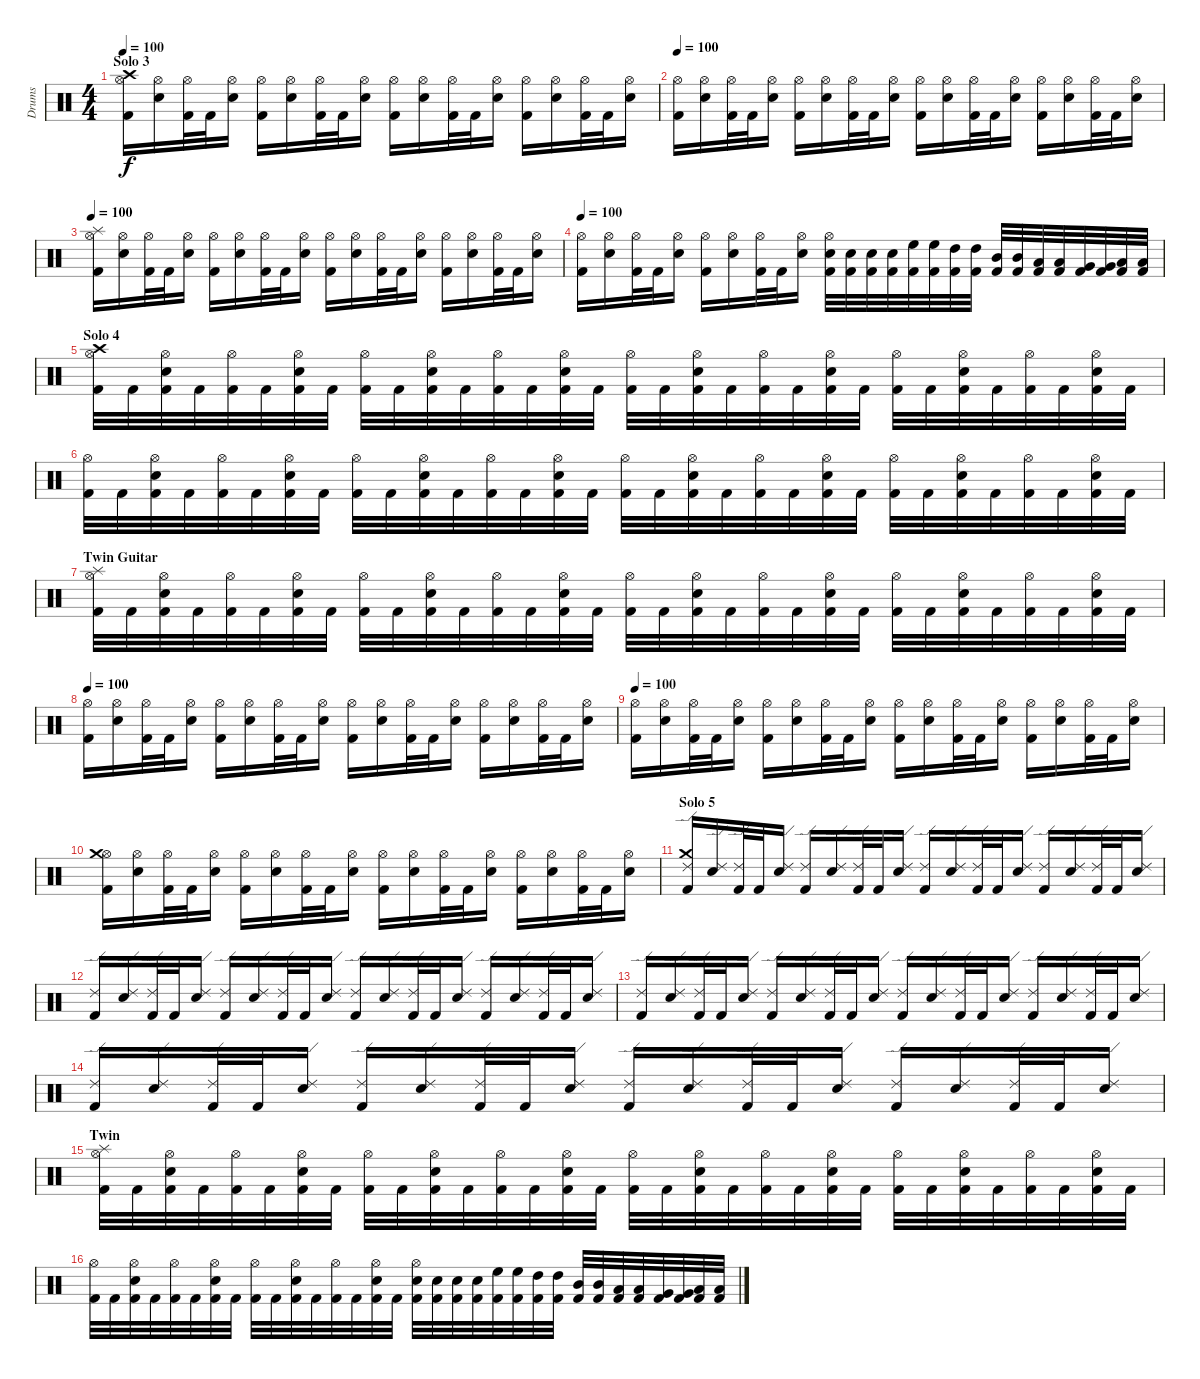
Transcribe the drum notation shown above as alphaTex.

\track ("Drums" "Drums") {instrument percussion}
\staff {score}
\articulation defaults
\ts (4 4)
\section ("" "Solo 3")
\tempo 100
\clef neutral
\ks c
("Kick (hit) 2" "Hi-Hat (open)" "Crash high (hit)").16{dy f} ("Snare (hit) 2" "Hi-Hat (open)").16 ("Kick (hit) 2" "Hi-Hat (open)").32 "Kick (hit) 2".32 ("Snare (hit) 2" "Hi-Hat (open)").16 ("Kick (hit) 2" "Hi-Hat (open)").16 ("Snare (hit) 2" "Hi-Hat (open)").16 ("Kick (hit) 2" "Hi-Hat (open)").32 "Kick (hit) 2".32 ("Snare (hit) 2" "Hi-Hat (open)").16 ("Kick (hit) 2" "Hi-Hat (open)").16 ("Snare (hit) 2" "Hi-Hat (open)").16 ("Kick (hit) 2" "Hi-Hat (open)").32 "Kick (hit) 2".32 ("Snare (hit) 2" "Hi-Hat (open)").16 ("Kick (hit) 2" "Hi-Hat (open)").16 ("Snare (hit) 2" "Hi-Hat (open)").16 ("Kick (hit) 2" "Hi-Hat (open)").32 "Kick (hit) 2".32 ("Snare (hit) 2" "Hi-Hat (open)").16 |
\tempo 100
("Kick (hit) 2" "Hi-Hat (open)").16 ("Snare (hit) 2" "Hi-Hat (open)").16 ("Kick (hit) 2" "Hi-Hat (open)").32 "Kick (hit) 2".32 ("Snare (hit) 2" "Hi-Hat (open)").16 ("Kick (hit) 2" "Hi-Hat (open)").16 ("Snare (hit) 2" "Hi-Hat (open)").16 ("Kick (hit) 2" "Hi-Hat (open)").32 "Kick (hit) 2".32 ("Snare (hit) 2" "Hi-Hat (open)").16 ("Kick (hit) 2" "Hi-Hat (open)").16 ("Snare (hit) 2" "Hi-Hat (open)").16 ("Kick (hit) 2" "Hi-Hat (open)").32 "Kick (hit) 2".32 ("Snare (hit) 2" "Hi-Hat (open)").16 ("Kick (hit) 2" "Hi-Hat (open)").16 ("Snare (hit) 2" "Hi-Hat (open)").16 ("Kick (hit) 2" "Hi-Hat (open)").32 "Kick (hit) 2".32 ("Snare (hit) 2" "Hi-Hat (open)").16 |
\tempo 100
("Kick (hit) 2" "Hi-Hat (open)" "Splash (hit)").16 ("Snare (hit) 2" "Hi-Hat (open)").16 ("Kick (hit) 2" "Hi-Hat (open)").32 "Kick (hit) 2".32 ("Snare (hit) 2" "Hi-Hat (open)").16 ("Kick (hit) 2" "Hi-Hat (open)").16 ("Snare (hit) 2" "Hi-Hat (open)").16 ("Kick (hit) 2" "Hi-Hat (open)").32 "Kick (hit) 2".32 ("Snare (hit) 2" "Hi-Hat (open)").16 ("Kick (hit) 2" "Hi-Hat (open)").16 ("Snare (hit) 2" "Hi-Hat (open)").16 ("Kick (hit) 2" "Hi-Hat (open)").32 "Kick (hit) 2".32 ("Snare (hit) 2" "Hi-Hat (open)").16 ("Kick (hit) 2" "Hi-Hat (open)").16 ("Snare (hit) 2" "Hi-Hat (open)").16 ("Kick (hit) 2" "Hi-Hat (open)").32 "Kick (hit) 2".32 ("Snare (hit) 2" "Hi-Hat (open)").16 |
\tempo 100
("Kick (hit) 2" "Hi-Hat (open)").16 ("Snare (hit) 2" "Hi-Hat (open)").16 ("Kick (hit) 2" "Hi-Hat (open)").32 "Kick (hit) 2".32 ("Snare (hit) 2" "Hi-Hat (open)").16 ("Kick (hit) 2" "Hi-Hat (open)").16 ("Snare (hit) 2" "Hi-Hat (open)").16 ("Kick (hit) 2" "Hi-Hat (open)").32 "Kick (hit) 2".32 ("Snare (hit) 2" "Hi-Hat (open)").16 ("Kick (hit) 2" "Snare (hit) 2" "Hi-Hat (open)").32 ("Kick (hit) 2" "Snare (hit) 2").32 ("Kick (hit) 2" "Snare (hit) 2").32 ("Kick (hit) 2" "Snare (hit) 2").32 ("Kick (hit) 2" "High Floor Tom (hit)").32 ("Kick (hit) 2" "High Floor Tom (hit)").32 ("Kick (hit) 2" "High Tom (hit)").32 ("Kick (hit) 2" "High Tom (hit)").32 ("Kick (hit) 2" "Mid Tom (hit)").32 ("Kick (hit) 2" "Mid Tom (hit)").32 ("Kick (hit) 2" "Low Tom (hit)").32 ("Kick (hit) 2" "Low Tom (hit)").32 ("Kick (hit) 2" "Very Low Tom (hit)").32 ("Kick (hit) 2" "Very Low Tom (hit)").32 ("Kick (hit) 2" "Low Floor Tom (hit)").32 ("Kick (hit) 2" "Low Floor Tom (hit)").32 |
\section ("" "Solo 4")
("Kick (hit) 2" "Hi-Hat (open)" "Crash high (hit)").32 "Kick (hit) 2".32 ("Kick (hit) 2" "Snare (hit) 2" "Hi-Hat (open)").32 "Kick (hit) 2".32 ("Kick (hit) 2" "Hi-Hat (open)").32 "Kick (hit) 2".32 ("Kick (hit) 2" "Snare (hit) 2" "Hi-Hat (open)").32 "Kick (hit) 2".32 ("Kick (hit) 2" "Hi-Hat (open)").32 "Kick (hit) 2".32 ("Kick (hit) 2" "Snare (hit) 2" "Hi-Hat (open)").32 "Kick (hit) 2".32 ("Kick (hit) 2" "Hi-Hat (open)").32 "Kick (hit) 2".32 ("Kick (hit) 2" "Snare (hit) 2" "Hi-Hat (open)").32 "Kick (hit) 2".32 ("Kick (hit) 2" "Hi-Hat (open)").32 "Kick (hit) 2".32 ("Kick (hit) 2" "Snare (hit) 2" "Hi-Hat (open)").32 "Kick (hit) 2".32 ("Kick (hit) 2" "Hi-Hat (open)").32 "Kick (hit) 2".32 ("Kick (hit) 2" "Snare (hit) 2" "Hi-Hat (open)").32 "Kick (hit) 2".32 ("Kick (hit) 2" "Hi-Hat (open)").32 "Kick (hit) 2".32 ("Kick (hit) 2" "Snare (hit) 2" "Hi-Hat (open)").32 "Kick (hit) 2".32 ("Kick (hit) 2" "Hi-Hat (open)").32 "Kick (hit) 2".32 ("Kick (hit) 2" "Snare (hit) 2" "Hi-Hat (open)").32 "Kick (hit) 2".32 |
("Kick (hit) 2" "Hi-Hat (open)").32 "Kick (hit) 2".32 ("Kick (hit) 2" "Snare (hit) 2" "Hi-Hat (open)").32 "Kick (hit) 2".32 ("Kick (hit) 2" "Hi-Hat (open)").32 "Kick (hit) 2".32 ("Kick (hit) 2" "Snare (hit) 2" "Hi-Hat (open)").32 "Kick (hit) 2".32 ("Kick (hit) 2" "Hi-Hat (open)").32 "Kick (hit) 2".32 ("Kick (hit) 2" "Snare (hit) 2" "Hi-Hat (open)").32 "Kick (hit) 2".32 ("Kick (hit) 2" "Hi-Hat (open)").32 "Kick (hit) 2".32 ("Kick (hit) 2" "Snare (hit) 2" "Hi-Hat (open)").32 "Kick (hit) 2".32 ("Kick (hit) 2" "Hi-Hat (open)").32 "Kick (hit) 2".32 ("Kick (hit) 2" "Snare (hit) 2" "Hi-Hat (open)").32 "Kick (hit) 2".32 ("Kick (hit) 2" "Hi-Hat (open)").32 "Kick (hit) 2".32 ("Kick (hit) 2" "Snare (hit) 2" "Hi-Hat (open)").32 "Kick (hit) 2".32 ("Kick (hit) 2" "Hi-Hat (open)").32 "Kick (hit) 2".32 ("Kick (hit) 2" "Snare (hit) 2" "Hi-Hat (open)").32 "Kick (hit) 2".32 ("Kick (hit) 2" "Hi-Hat (open)").32 "Kick (hit) 2".32 ("Kick (hit) 2" "Snare (hit) 2" "Hi-Hat (open)").32 "Kick (hit) 2".32 |
\section ("" "Twin Guitar")
("Kick (hit) 2" "Hi-Hat (open)" "Splash (hit)").32 "Kick (hit) 2".32 ("Kick (hit) 2" "Snare (hit) 2" "Hi-Hat (open)").32 "Kick (hit) 2".32 ("Kick (hit) 2" "Hi-Hat (open)").32 "Kick (hit) 2".32 ("Kick (hit) 2" "Snare (hit) 2" "Hi-Hat (open)").32 "Kick (hit) 2".32 ("Kick (hit) 2" "Hi-Hat (open)").32 "Kick (hit) 2".32 ("Kick (hit) 2" "Snare (hit) 2" "Hi-Hat (open)").32 "Kick (hit) 2".32 ("Kick (hit) 2" "Hi-Hat (open)").32 "Kick (hit) 2".32 ("Kick (hit) 2" "Snare (hit) 2" "Hi-Hat (open)").32 "Kick (hit) 2".32 ("Kick (hit) 2" "Hi-Hat (open)").32 "Kick (hit) 2".32 ("Kick (hit) 2" "Snare (hit) 2" "Hi-Hat (open)").32 "Kick (hit) 2".32 ("Kick (hit) 2" "Hi-Hat (open)").32 "Kick (hit) 2".32 ("Kick (hit) 2" "Snare (hit) 2" "Hi-Hat (open)").32 "Kick (hit) 2".32 ("Kick (hit) 2" "Hi-Hat (open)").32 "Kick (hit) 2".32 ("Kick (hit) 2" "Snare (hit) 2" "Hi-Hat (open)").32 "Kick (hit) 2".32 ("Kick (hit) 2" "Hi-Hat (open)").32 "Kick (hit) 2".32 ("Kick (hit) 2" "Snare (hit) 2" "Hi-Hat (open)").32 "Kick (hit) 2".32 |
\tempo 100
("Kick (hit) 2" "Hi-Hat (open)").16 ("Snare (hit) 2" "Hi-Hat (open)").16 ("Kick (hit) 2" "Hi-Hat (open)").32 "Kick (hit) 2".32 ("Snare (hit) 2" "Hi-Hat (open)").16 ("Kick (hit) 2" "Hi-Hat (open)").16 ("Snare (hit) 2" "Hi-Hat (open)").16 ("Kick (hit) 2" "Hi-Hat (open)").32 "Kick (hit) 2".32 ("Snare (hit) 2" "Hi-Hat (open)").16 ("Kick (hit) 2" "Hi-Hat (open)").16 ("Snare (hit) 2" "Hi-Hat (open)").16 ("Kick (hit) 2" "Hi-Hat (open)").32 "Kick (hit) 2".32 ("Snare (hit) 2" "Hi-Hat (open)").16 ("Kick (hit) 2" "Hi-Hat (open)").16 ("Snare (hit) 2" "Hi-Hat (open)").16 ("Kick (hit) 2" "Hi-Hat (open)").32 "Kick (hit) 2".32 ("Snare (hit) 2" "Hi-Hat (open)").16 |
\tempo 100
("Kick (hit) 2" "Hi-Hat (open)").16 ("Snare (hit) 2" "Hi-Hat (open)").16 ("Kick (hit) 2" "Hi-Hat (open)").32 "Kick (hit) 2".32 ("Snare (hit) 2" "Hi-Hat (open)").16 ("Kick (hit) 2" "Hi-Hat (open)").16 ("Snare (hit) 2" "Hi-Hat (open)").16 ("Kick (hit) 2" "Hi-Hat (open)").32 "Kick (hit) 2".32 ("Snare (hit) 2" "Hi-Hat (open)").16 ("Kick (hit) 2" "Hi-Hat (open)").16 ("Snare (hit) 2" "Hi-Hat (open)").16 ("Kick (hit) 2" "Hi-Hat (open)").32 "Kick (hit) 2".32 ("Snare (hit) 2" "Hi-Hat (open)").16 ("Kick (hit) 2" "Hi-Hat (open)").16 ("Snare (hit) 2" "Hi-Hat (open)").16 ("Kick (hit) 2" "Hi-Hat (open)").32 "Kick (hit) 2".32 ("Snare (hit) 2" "Hi-Hat (open)").16 |
("Kick (hit) 2" "Hi-Hat (open)" "Crash medium (hit)").16 ("Snare (hit) 2" "Hi-Hat (open)").16 ("Kick (hit) 2" "Hi-Hat (open)").32 "Kick (hit) 2".32 ("Snare (hit) 2" "Hi-Hat (open)").16 ("Kick (hit) 2" "Hi-Hat (open)").16 ("Snare (hit) 2" "Hi-Hat (open)").16 ("Kick (hit) 2" "Hi-Hat (open)").32 "Kick (hit) 2".32 ("Snare (hit) 2" "Hi-Hat (open)").16 ("Kick (hit) 2" "Hi-Hat (open)").16 ("Snare (hit) 2" "Hi-Hat (open)").16 ("Kick (hit) 2" "Hi-Hat (open)").32 "Kick (hit) 2".32 ("Snare (hit) 2" "Hi-Hat (open)").16 ("Kick (hit) 2" "Hi-Hat (open)").16 ("Snare (hit) 2" "Hi-Hat (open)").16 ("Kick (hit) 2" "Hi-Hat (open)").32 "Kick (hit) 2".32 ("Snare (hit) 2" "Hi-Hat (open)").16 |
\section ("" "Solo 5")
("Kick (hit) 2" "Ride (edge) 2" "Crash medium (hit)").16 ("Snare (hit) 2" "Ride (edge) 2").16 ("Kick (hit) 2" "Ride (edge) 2").32 "Kick (hit) 2".32 ("Snare (hit) 2" "Ride (edge) 2").16 ("Kick (hit) 2" "Ride (edge) 2").16 ("Snare (hit) 2" "Ride (edge) 2").16 ("Kick (hit) 2" "Ride (edge) 2").32 "Kick (hit) 2".32 ("Snare (hit) 2" "Ride (edge) 2").16 ("Kick (hit) 2" "Ride (edge) 2").16 ("Snare (hit) 2" "Ride (edge) 2").16 ("Kick (hit) 2" "Ride (edge) 2").32 "Kick (hit) 2".32 ("Snare (hit) 2" "Ride (edge) 2").16 ("Kick (hit) 2" "Ride (edge) 2").16 ("Snare (hit) 2" "Ride (edge) 2").16 ("Kick (hit) 2" "Ride (edge) 2").32 "Kick (hit) 2".32 ("Snare (hit) 2" "Ride (edge) 2").16 |
("Kick (hit) 2" "Ride (edge) 2").16 ("Snare (hit) 2" "Ride (edge) 2").16 ("Kick (hit) 2" "Ride (edge) 2").32 "Kick (hit) 2".32 ("Snare (hit) 2" "Ride (edge) 2").16 ("Kick (hit) 2" "Ride (edge) 2").16 ("Snare (hit) 2" "Ride (edge) 2").16 ("Kick (hit) 2" "Ride (edge) 2").32 "Kick (hit) 2".32 ("Snare (hit) 2" "Ride (edge) 2").16 ("Kick (hit) 2" "Ride (edge) 2").16 ("Snare (hit) 2" "Ride (edge) 2").16 ("Kick (hit) 2" "Ride (edge) 2").32 "Kick (hit) 2".32 ("Snare (hit) 2" "Ride (edge) 2").16 ("Kick (hit) 2" "Ride (edge) 2").16 ("Snare (hit) 2" "Ride (edge) 2").16 ("Kick (hit) 2" "Ride (edge) 2").32 "Kick (hit) 2".32 ("Snare (hit) 2" "Ride (edge) 2").16 |
("Kick (hit) 2" "Ride (edge) 2").16 ("Snare (hit) 2" "Ride (edge) 2").16 ("Kick (hit) 2" "Ride (edge) 2").32 "Kick (hit) 2".32 ("Snare (hit) 2" "Ride (edge) 2").16 ("Kick (hit) 2" "Ride (edge) 2").16 ("Snare (hit) 2" "Ride (edge) 2").16 ("Kick (hit) 2" "Ride (edge) 2").32 "Kick (hit) 2".32 ("Snare (hit) 2" "Ride (edge) 2").16 ("Kick (hit) 2" "Ride (edge) 2").16 ("Snare (hit) 2" "Ride (edge) 2").16 ("Kick (hit) 2" "Ride (edge) 2").32 "Kick (hit) 2".32 ("Snare (hit) 2" "Ride (edge) 2").16 ("Kick (hit) 2" "Ride (edge) 2").16 ("Snare (hit) 2" "Ride (edge) 2").16 ("Kick (hit) 2" "Ride (edge) 2").32 "Kick (hit) 2".32 ("Snare (hit) 2" "Ride (edge) 2").16 |
("Kick (hit) 2" "Ride (edge) 2").16 ("Snare (hit) 2" "Ride (edge) 2").16 ("Kick (hit) 2" "Ride (edge) 2").32 "Kick (hit) 2".32 ("Snare (hit) 2" "Ride (edge) 2").16 ("Kick (hit) 2" "Ride (edge) 2").16 ("Snare (hit) 2" "Ride (edge) 2").16 ("Kick (hit) 2" "Ride (edge) 2").32 "Kick (hit) 2".32 ("Snare (hit) 2" "Ride (edge) 2").16 ("Kick (hit) 2" "Ride (edge) 2").16 ("Snare (hit) 2" "Ride (edge) 2").16 ("Kick (hit) 2" "Ride (edge) 2").32 "Kick (hit) 2".32 ("Snare (hit) 2" "Ride (edge) 2").16 ("Kick (hit) 2" "Ride (edge) 2").16 ("Snare (hit) 2" "Ride (edge) 2").16 ("Kick (hit) 2" "Ride (edge) 2").32 "Kick (hit) 2".32 ("Snare (hit) 2" "Ride (edge) 2").16 |
\section ("" "Twin")
("Kick (hit) 2" "Hi-Hat (open)" "Splash (hit)").32 "Kick (hit) 2".32 ("Kick (hit) 2" "Snare (hit) 2" "Hi-Hat (open)").32 "Kick (hit) 2".32 ("Kick (hit) 2" "Hi-Hat (open)").32 "Kick (hit) 2".32 ("Kick (hit) 2" "Snare (hit) 2" "Hi-Hat (open)").32 "Kick (hit) 2".32 ("Kick (hit) 2" "Hi-Hat (open)").32 "Kick (hit) 2".32 ("Kick (hit) 2" "Snare (hit) 2" "Hi-Hat (open)").32 "Kick (hit) 2".32 ("Kick (hit) 2" "Hi-Hat (open)").32 "Kick (hit) 2".32 ("Kick (hit) 2" "Snare (hit) 2" "Hi-Hat (open)").32 "Kick (hit) 2".32 ("Kick (hit) 2" "Hi-Hat (open)").32 "Kick (hit) 2".32 ("Kick (hit) 2" "Snare (hit) 2" "Hi-Hat (open)").32 "Kick (hit) 2".32 ("Kick (hit) 2" "Hi-Hat (open)").32 "Kick (hit) 2".32 ("Kick (hit) 2" "Snare (hit) 2" "Hi-Hat (open)").32 "Kick (hit) 2".32 ("Kick (hit) 2" "Hi-Hat (open)").32 "Kick (hit) 2".32 ("Kick (hit) 2" "Snare (hit) 2" "Hi-Hat (open)").32 "Kick (hit) 2".32 ("Kick (hit) 2" "Hi-Hat (open)").32 "Kick (hit) 2".32 ("Kick (hit) 2" "Snare (hit) 2" "Hi-Hat (open)").32 "Kick (hit) 2".32 |
("Kick (hit) 2" "Hi-Hat (open)").32 "Kick (hit) 2".32 ("Kick (hit) 2" "Snare (hit) 2" "Hi-Hat (open)").32 "Kick (hit) 2".32 ("Kick (hit) 2" "Hi-Hat (open)").32 "Kick (hit) 2".32 ("Kick (hit) 2" "Snare (hit) 2" "Hi-Hat (open)").32 "Kick (hit) 2".32 ("Kick (hit) 2" "Hi-Hat (open)").32 "Kick (hit) 2".32 ("Kick (hit) 2" "Snare (hit) 2" "Hi-Hat (open)").32 "Kick (hit) 2".32 ("Kick (hit) 2" "Hi-Hat (open)").32 "Kick (hit) 2".32 ("Kick (hit) 2" "Snare (hit) 2" "Hi-Hat (open)").32 "Kick (hit) 2".32 ("Kick (hit) 2" "Snare (hit) 2" "Hi-Hat (open)").32 ("Kick (hit) 2" "Snare (hit) 2").32 ("Kick (hit) 2" "Snare (hit) 2").32 ("Kick (hit) 2" "Snare (hit) 2").32 ("Kick (hit) 2" "High Floor Tom (hit)").32 ("Kick (hit) 2" "High Floor Tom (hit)").32 ("Kick (hit) 2" "High Tom (hit)").32 ("Kick (hit) 2" "High Tom (hit)").32 ("Kick (hit) 2" "Mid Tom (hit)").32 ("Kick (hit) 2" "Mid Tom (hit)").32 ("Kick (hit) 2" "Low Tom (hit)").32 ("Kick (hit) 2" "Low Tom (hit)").32 ("Kick (hit) 2" "Very Low Tom (hit)").32 ("Kick (hit) 2" "Very Low Tom (hit)").32 ("Kick (hit) 2" "Low Floor Tom (hit)").32 ("Kick (hit) 2" "Low Floor Tom (hit)").32
